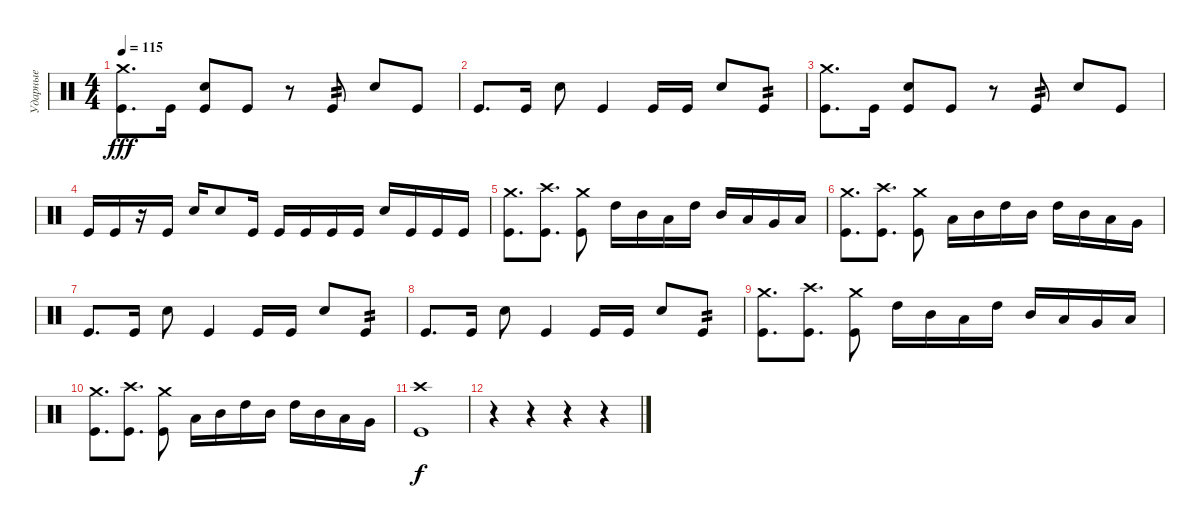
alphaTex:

\track ("Ударные" "Ударные") {instrument percussion}
\staff {score}
\articulation defaults
\ts (4 4)
\tempo 115
\clef neutral
\ks c
("Crash medium (hit)" "Kick (hit)").8{d dy fff} "Kick (hit)".16 ("Electric Snare (hit)" "Kick (hit)").8 "Kick (hit)".8 r.8 "Kick (hit)".8{tp 2} "Electric Snare (hit)".8 "Kick (hit)".8 |
"Kick (hit)".8{d} "Kick (hit)".16 "Electric Snare (hit)".8 "Kick (hit)".4 "Kick (hit)".16 "Kick (hit)".16 "Electric Snare (hit)".8 "Kick (hit)".8{tp 2} |
("Crash medium (hit)" "Kick (hit)").8{d} "Kick (hit)".16 ("Electric Snare (hit)" "Kick (hit)").8 "Kick (hit)".8 r.8 "Kick (hit)".8{tp 2} "Electric Snare (hit)".8 "Kick (hit)".8 |
"Kick (hit)".16 "Kick (hit)".16 r.16 "Kick (hit)".16 "Electric Snare (hit)".16 "Electric Snare (hit)".8 "Kick (hit)".16 "Kick (hit)".16 "Kick (hit)".16 "Kick (hit)".16 "Kick (hit)".16 "Electric Snare (hit)".16 "Kick (hit)".16 "Kick (hit)".16 "Kick (hit)".16 |
("Crash medium (hit)" "Kick (hit)").8{d} ("Crash high (hit)" "Kick (hit)").8{d} ("Crash medium (hit)" "Kick (hit)").8 "High Tom (hit)".16 "Mid Tom (hit)".16 "Low Tom (hit)".16 "High Tom (hit)".16 "Mid Tom (hit)".16 "Low Tom (hit)".16 "Very Low Tom (hit)".16 "Low Floor Tom (hit)".16 |
("Crash medium (hit)" "Kick (hit)").8{d} ("Crash high (hit)" "Kick (hit)").8{d} ("Crash medium (hit)" "Kick (hit)").8 "Low Tom (hit)".16 "Mid Tom (hit)".16 "High Tom (hit)".16 "Mid Tom (hit)".16 "High Tom (hit)".16 "Mid Tom (hit)".16 "Low Tom (hit)".16 "Very Low Tom (hit)".16 |
"Kick (hit)".8{d} "Kick (hit)".16 "Electric Snare (hit)".8 "Kick (hit)".4 "Kick (hit)".16 "Kick (hit)".16 "Electric Snare (hit)".8 "Kick (hit)".8{tp 2} |
"Kick (hit)".8{d} "Kick (hit)".16 "Electric Snare (hit)".8 "Kick (hit)".4 "Kick (hit)".16 "Kick (hit)".16 "Electric Snare (hit)".8 "Kick (hit)".8{tp 2} |
("Crash medium (hit)" "Kick (hit)").8{d} ("Crash high (hit)" "Kick (hit)").8{d} ("Crash medium (hit)" "Kick (hit)").8 "High Tom (hit)".16 "Mid Tom (hit)".16 "Low Tom (hit)".16 "High Tom (hit)".16 "Mid Tom (hit)".16 "Low Tom (hit)".16 "Very Low Tom (hit)".16 "Low Floor Tom (hit)".16 |
("Crash medium (hit)" "Kick (hit)").8{d} ("Crash high (hit)" "Kick (hit)").8{d} ("Crash medium (hit)" "Kick (hit)").8 "Low Tom (hit)".16 "Mid Tom (hit)".16 "High Tom (hit)".16 "Mid Tom (hit)".16 "High Tom (hit)".16 "Mid Tom (hit)".16 "Low Tom (hit)".16 "Very Low Tom (hit)".16 |
("Kick (hit)" "Crash high (hit)").1{dy f} |
r.4 r.4 r.4 r.4
